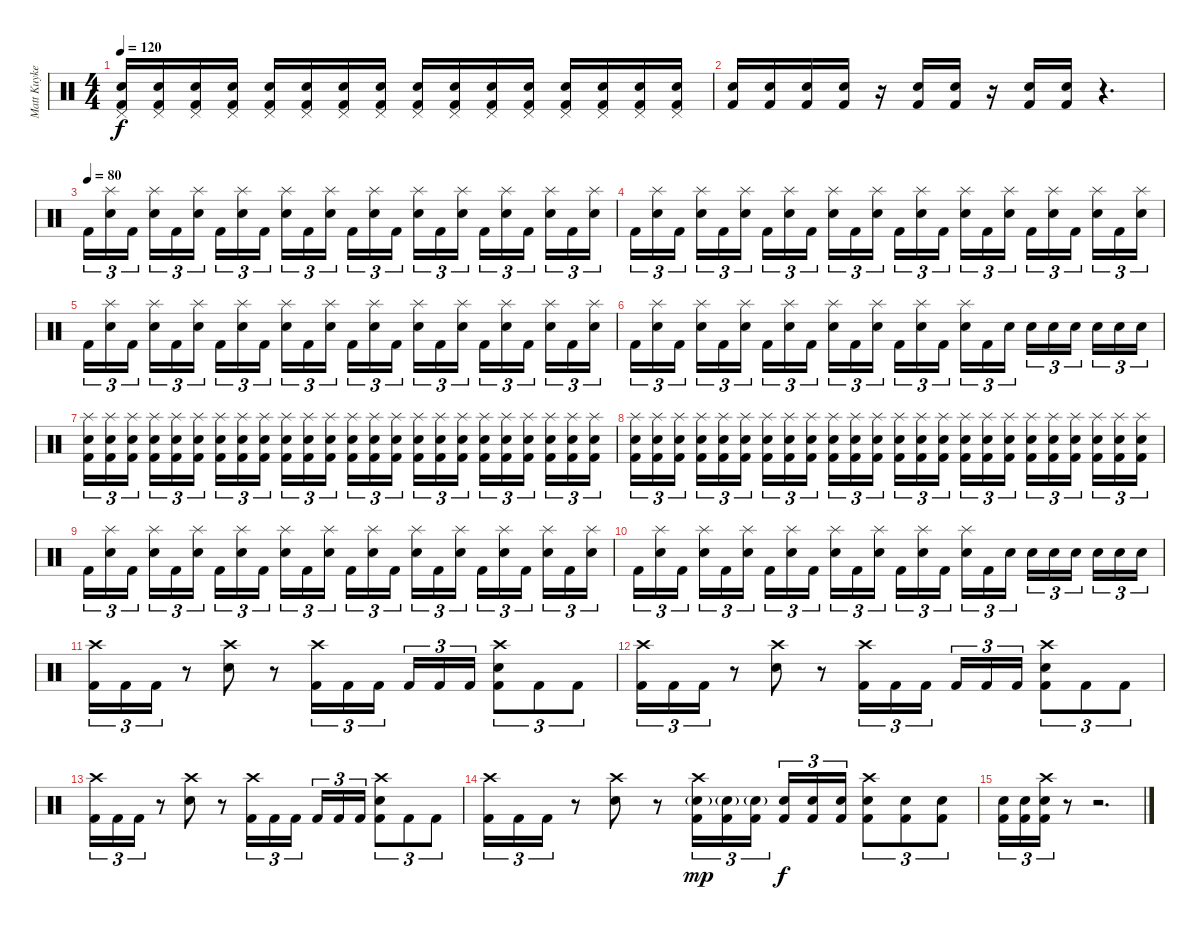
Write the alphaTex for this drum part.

\track ("Matt Kuykendall (Drums)" "Matt Kuyke") {instrument percussion}
\staff {score}
\articulation defaults
\ts (4 4)
\tempo 120
\clef neutral
\ks c
("Pedal Hi-Hat (hit)" "Snare (hit) 2" "Kick (hit) 2").16{dy f} ("Pedal Hi-Hat (hit)" "Snare (hit) 2" "Kick (hit) 2").16 ("Pedal Hi-Hat (hit)" "Snare (hit) 2" "Kick (hit) 2").16 ("Pedal Hi-Hat (hit)" "Snare (hit) 2" "Kick (hit) 2").16 ("Pedal Hi-Hat (hit)" "Snare (hit) 2" "Kick (hit) 2").16 ("Pedal Hi-Hat (hit)" "Snare (hit) 2" "Kick (hit) 2").16 ("Pedal Hi-Hat (hit)" "Snare (hit) 2" "Kick (hit) 2").16 ("Pedal Hi-Hat (hit)" "Snare (hit) 2" "Kick (hit) 2").16 ("Pedal Hi-Hat (hit)" "Snare (hit) 2" "Kick (hit) 2").16 ("Pedal Hi-Hat (hit)" "Snare (hit) 2" "Kick (hit) 2").16 ("Pedal Hi-Hat (hit)" "Snare (hit) 2" "Kick (hit) 2").16 ("Pedal Hi-Hat (hit)" "Snare (hit) 2" "Kick (hit) 2").16 ("Pedal Hi-Hat (hit)" "Snare (hit) 2" "Kick (hit) 2").16 ("Pedal Hi-Hat (hit)" "Snare (hit) 2" "Kick (hit) 2").16 ("Pedal Hi-Hat (hit)" "Snare (hit) 2" "Kick (hit) 2").16 ("Pedal Hi-Hat (hit)" "Snare (hit) 2" "Kick (hit) 2").16 |
("Snare (hit) 2" "Kick (hit) 2").16 ("Snare (hit) 2" "Kick (hit) 2").16 ("Snare (hit) 2" "Kick (hit) 2").16 ("Snare (hit) 2" "Kick (hit) 2").16 r.16 ("Snare (hit) 2" "Kick (hit) 2").16 ("Snare (hit) 2" "Kick (hit) 2").16 r.16 ("Snare (hit) 2" "Kick (hit) 2").16 ("Snare (hit) 2" "Kick (hit) 2").16 r.4{d} |
\tempo (80)
"Kick (hit) 2".16{tu (3 2)} ("Splash (hit)" "Snare (hit) 2").16{tu (3 2)} "Kick (hit) 2".16{tu (3 2) beam splitsecondary} ("Splash (hit)" "Snare (hit) 2").16{tu (3 2)} "Kick (hit) 2".16{tu (3 2)} ("Splash (hit)" "Snare (hit) 2").16{tu (3 2)} "Kick (hit) 2".16{tu (3 2)} ("Splash (hit)" "Snare (hit) 2").16{tu (3 2)} "Kick (hit) 2".16{tu (3 2) beam splitsecondary} ("Splash (hit)" "Snare (hit) 2").16{tu (3 2)} "Kick (hit) 2".16{tu (3 2)} ("Splash (hit)" "Snare (hit) 2").16{tu (3 2)} "Kick (hit) 2".16{tu (3 2)} ("Splash (hit)" "Snare (hit) 2").16{tu (3 2)} "Kick (hit) 2".16{tu (3 2) beam splitsecondary} ("Splash (hit)" "Snare (hit) 2").16{tu (3 2)} "Kick (hit) 2".16{tu (3 2)} ("Splash (hit)" "Snare (hit) 2").16{tu (3 2)} "Kick (hit) 2".16{tu (3 2)} ("Splash (hit)" "Snare (hit) 2").16{tu (3 2)} "Kick (hit) 2".16{tu (3 2) beam splitsecondary} ("Splash (hit)" "Snare (hit) 2").16{tu (3 2)} "Kick (hit) 2".16{tu (3 2)} ("Splash (hit)" "Snare (hit) 2").16{tu (3 2)} |
"Kick (hit) 2".16{tu (3 2)} ("Splash (hit)" "Snare (hit) 2").16{tu (3 2)} "Kick (hit) 2".16{tu (3 2) beam splitsecondary} ("Splash (hit)" "Snare (hit) 2").16{tu (3 2)} "Kick (hit) 2".16{tu (3 2)} ("Splash (hit)" "Snare (hit) 2").16{tu (3 2)} "Kick (hit) 2".16{tu (3 2)} ("Splash (hit)" "Snare (hit) 2").16{tu (3 2)} "Kick (hit) 2".16{tu (3 2) beam splitsecondary} ("Splash (hit)" "Snare (hit) 2").16{tu (3 2)} "Kick (hit) 2".16{tu (3 2)} ("Splash (hit)" "Snare (hit) 2").16{tu (3 2)} "Kick (hit) 2".16{tu (3 2)} ("Splash (hit)" "Snare (hit) 2").16{tu (3 2)} "Kick (hit) 2".16{tu (3 2) beam splitsecondary} ("Splash (hit)" "Snare (hit) 2").16{tu (3 2)} "Kick (hit) 2".16{tu (3 2)} ("Splash (hit)" "Snare (hit) 2").16{tu (3 2)} "Kick (hit) 2".16{tu (3 2)} ("Splash (hit)" "Snare (hit) 2").16{tu (3 2)} "Kick (hit) 2".16{tu (3 2) beam splitsecondary} ("Splash (hit)" "Snare (hit) 2").16{tu (3 2)} "Kick (hit) 2".16{tu (3 2)} ("Splash (hit)" "Snare (hit) 2").16{tu (3 2)} |
"Kick (hit) 2".16{tu (3 2)} ("Splash (hit)" "Snare (hit) 2").16{tu (3 2)} "Kick (hit) 2".16{tu (3 2) beam splitsecondary} ("Splash (hit)" "Snare (hit) 2").16{tu (3 2)} "Kick (hit) 2".16{tu (3 2)} ("Splash (hit)" "Snare (hit) 2").16{tu (3 2)} "Kick (hit) 2".16{tu (3 2)} ("Splash (hit)" "Snare (hit) 2").16{tu (3 2)} "Kick (hit) 2".16{tu (3 2) beam splitsecondary} ("Splash (hit)" "Snare (hit) 2").16{tu (3 2)} "Kick (hit) 2".16{tu (3 2)} ("Splash (hit)" "Snare (hit) 2").16{tu (3 2)} "Kick (hit) 2".16{tu (3 2)} ("Splash (hit)" "Snare (hit) 2").16{tu (3 2)} "Kick (hit) 2".16{tu (3 2) beam splitsecondary} ("Splash (hit)" "Snare (hit) 2").16{tu (3 2)} "Kick (hit) 2".16{tu (3 2)} ("Splash (hit)" "Snare (hit) 2").16{tu (3 2)} "Kick (hit) 2".16{tu (3 2)} ("Splash (hit)" "Snare (hit) 2").16{tu (3 2)} "Kick (hit) 2".16{tu (3 2) beam splitsecondary} ("Splash (hit)" "Snare (hit) 2").16{tu (3 2)} "Kick (hit) 2".16{tu (3 2)} ("Splash (hit)" "Snare (hit) 2").16{tu (3 2)} |
"Kick (hit) 2".16{tu (3 2)} ("Splash (hit)" "Snare (hit) 2").16{tu (3 2)} "Kick (hit) 2".16{tu (3 2) beam splitsecondary} ("Splash (hit)" "Snare (hit) 2").16{tu (3 2)} "Kick (hit) 2".16{tu (3 2)} ("Splash (hit)" "Snare (hit) 2").16{tu (3 2)} "Kick (hit) 2".16{tu (3 2)} ("Splash (hit)" "Snare (hit) 2").16{tu (3 2)} "Kick (hit) 2".16{tu (3 2) beam splitsecondary} ("Splash (hit)" "Snare (hit) 2").16{tu (3 2)} "Kick (hit) 2".16{tu (3 2)} ("Splash (hit)" "Snare (hit) 2").16{tu (3 2)} "Kick (hit) 2".16{tu (3 2)} ("Splash (hit)" "Snare (hit) 2").16{tu (3 2)} "Kick (hit) 2".16{tu (3 2) beam splitsecondary} ("Splash (hit)" "Snare (hit) 2").16{tu (3 2)} "Kick (hit) 2".16{tu (3 2)} "Snare (hit) 2".16{tu (3 2)} "Snare (hit) 2".16{tu (3 2)} "Snare (hit) 2".16{tu (3 2)} "Snare (hit) 2".16{tu (3 2) beam splitsecondary} "Snare (hit) 2".16{tu (3 2)} "Snare (hit) 2".16{tu (3 2)} "Snare (hit) 2".16{tu (3 2)} |
("Splash (hit)" "Snare (hit) 2" "Kick (hit) 2").16{tu (3 2)} ("Splash (hit)" "Snare (hit) 2" "Kick (hit) 2").16{tu (3 2)} ("Splash (hit)" "Snare (hit) 2" "Kick (hit) 2").16{tu (3 2) beam splitsecondary} ("Splash (hit)" "Snare (hit) 2" "Kick (hit) 2").16{tu (3 2)} ("Splash (hit)" "Snare (hit) 2" "Kick (hit) 2").16{tu (3 2)} ("Splash (hit)" "Snare (hit) 2" "Kick (hit) 2").16{tu (3 2)} ("Splash (hit)" "Snare (hit) 2" "Kick (hit) 2").16{tu (3 2)} ("Splash (hit)" "Snare (hit) 2" "Kick (hit) 2").16{tu (3 2)} ("Splash (hit)" "Snare (hit) 2" "Kick (hit) 2").16{tu (3 2) beam splitsecondary} ("Splash (hit)" "Snare (hit) 2" "Kick (hit) 2").16{tu (3 2)} ("Splash (hit)" "Snare (hit) 2" "Kick (hit) 2").16{tu (3 2)} ("Splash (hit)" "Snare (hit) 2" "Kick (hit) 2").16{tu (3 2)} ("Splash (hit)" "Snare (hit) 2" "Kick (hit) 2").16{tu (3 2)} ("Splash (hit)" "Snare (hit) 2" "Kick (hit) 2").16{tu (3 2)} ("Splash (hit)" "Snare (hit) 2" "Kick (hit) 2").16{tu (3 2) beam splitsecondary} ("Splash (hit)" "Snare (hit) 2" "Kick (hit) 2").16{tu (3 2)} ("Splash (hit)" "Snare (hit) 2" "Kick (hit) 2").16{tu (3 2)} ("Splash (hit)" "Snare (hit) 2" "Kick (hit) 2").16{tu (3 2)} ("Splash (hit)" "Snare (hit) 2" "Kick (hit) 2").16{tu (3 2)} ("Splash (hit)" "Snare (hit) 2" "Kick (hit) 2").16{tu (3 2)} ("Splash (hit)" "Snare (hit) 2" "Kick (hit) 2").16{tu (3 2) beam splitsecondary} ("Splash (hit)" "Snare (hit) 2" "Kick (hit) 2").16{tu (3 2)} ("Splash (hit)" "Snare (hit) 2" "Kick (hit) 2").16{tu (3 2)} ("Splash (hit)" "Snare (hit) 2" "Kick (hit) 2").16{tu (3 2)} |
("Splash (hit)" "Snare (hit) 2" "Kick (hit) 2").16{tu (3 2)} ("Splash (hit)" "Snare (hit) 2" "Kick (hit) 2").16{tu (3 2)} ("Splash (hit)" "Snare (hit) 2" "Kick (hit) 2").16{tu (3 2) beam splitsecondary} ("Splash (hit)" "Snare (hit) 2" "Kick (hit) 2").16{tu (3 2)} ("Splash (hit)" "Snare (hit) 2" "Kick (hit) 2").16{tu (3 2)} ("Splash (hit)" "Snare (hit) 2" "Kick (hit) 2").16{tu (3 2)} ("Splash (hit)" "Snare (hit) 2" "Kick (hit) 2").16{tu (3 2)} ("Splash (hit)" "Snare (hit) 2" "Kick (hit) 2").16{tu (3 2)} ("Splash (hit)" "Snare (hit) 2" "Kick (hit) 2").16{tu (3 2) beam splitsecondary} ("Splash (hit)" "Snare (hit) 2" "Kick (hit) 2").16{tu (3 2)} ("Splash (hit)" "Snare (hit) 2" "Kick (hit) 2").16{tu (3 2)} ("Splash (hit)" "Snare (hit) 2" "Kick (hit) 2").16{tu (3 2)} ("Splash (hit)" "Snare (hit) 2" "Kick (hit) 2").16{tu (3 2)} ("Splash (hit)" "Snare (hit) 2" "Kick (hit) 2").16{tu (3 2)} ("Splash (hit)" "Snare (hit) 2" "Kick (hit) 2").16{tu (3 2) beam splitsecondary} ("Splash (hit)" "Snare (hit) 2" "Kick (hit) 2").16{tu (3 2)} ("Splash (hit)" "Snare (hit) 2" "Kick (hit) 2").16{tu (3 2)} ("Splash (hit)" "Snare (hit) 2" "Kick (hit) 2").16{tu (3 2)} ("Splash (hit)" "Snare (hit) 2" "Kick (hit) 2").16{tu (3 2)} ("Splash (hit)" "Snare (hit) 2" "Kick (hit) 2").16{tu (3 2)} ("Splash (hit)" "Snare (hit) 2" "Kick (hit) 2").16{tu (3 2) beam splitsecondary} ("Splash (hit)" "Snare (hit) 2" "Kick (hit) 2").16{tu (3 2)} ("Splash (hit)" "Snare (hit) 2" "Kick (hit) 2").16{tu (3 2)} ("Splash (hit)" "Snare (hit) 2" "Kick (hit) 2").16{tu (3 2)} |
"Kick (hit) 2".16{tu (3 2)} ("Splash (hit)" "Snare (hit) 2").16{tu (3 2)} "Kick (hit) 2".16{tu (3 2) beam splitsecondary} ("Splash (hit)" "Snare (hit) 2").16{tu (3 2)} "Kick (hit) 2".16{tu (3 2)} ("Splash (hit)" "Snare (hit) 2").16{tu (3 2)} "Kick (hit) 2".16{tu (3 2)} ("Splash (hit)" "Snare (hit) 2").16{tu (3 2)} "Kick (hit) 2".16{tu (3 2) beam splitsecondary} ("Splash (hit)" "Snare (hit) 2").16{tu (3 2)} "Kick (hit) 2".16{tu (3 2)} ("Splash (hit)" "Snare (hit) 2").16{tu (3 2)} "Kick (hit) 2".16{tu (3 2)} ("Splash (hit)" "Snare (hit) 2").16{tu (3 2)} "Kick (hit) 2".16{tu (3 2) beam splitsecondary} ("Splash (hit)" "Snare (hit) 2").16{tu (3 2)} "Kick (hit) 2".16{tu (3 2)} ("Splash (hit)" "Snare (hit) 2").16{tu (3 2)} "Kick (hit) 2".16{tu (3 2)} ("Splash (hit)" "Snare (hit) 2").16{tu (3 2)} "Kick (hit) 2".16{tu (3 2) beam splitsecondary} ("Splash (hit)" "Snare (hit) 2").16{tu (3 2)} "Kick (hit) 2".16{tu (3 2)} ("Splash (hit)" "Snare (hit) 2").16{tu (3 2)} |
"Kick (hit) 2".16{tu (3 2)} ("Splash (hit)" "Snare (hit) 2").16{tu (3 2)} "Kick (hit) 2".16{tu (3 2) beam splitsecondary} ("Splash (hit)" "Snare (hit) 2").16{tu (3 2)} "Kick (hit) 2".16{tu (3 2)} ("Splash (hit)" "Snare (hit) 2").16{tu (3 2)} "Kick (hit) 2".16{tu (3 2)} ("Splash (hit)" "Snare (hit) 2").16{tu (3 2)} "Kick (hit) 2".16{tu (3 2) beam splitsecondary} ("Splash (hit)" "Snare (hit) 2").16{tu (3 2)} "Kick (hit) 2".16{tu (3 2)} ("Splash (hit)" "Snare (hit) 2").16{tu (3 2)} "Kick (hit) 2".16{tu (3 2)} ("Splash (hit)" "Snare (hit) 2").16{tu (3 2)} "Kick (hit) 2".16{tu (3 2) beam splitsecondary} ("Splash (hit)" "Snare (hit) 2").16{tu (3 2)} "Kick (hit) 2".16{tu (3 2)} "Snare (hit) 2".16{tu (3 2)} "Snare (hit) 2".16{tu (3 2)} "Snare (hit) 2".16{tu (3 2)} "Snare (hit) 2".16{tu (3 2) beam splitsecondary} "Snare (hit) 2".16{tu (3 2)} "Snare (hit) 2".16{tu (3 2)} "Snare (hit) 2".16{tu (3 2)} |
("Crash high (hit)" "Kick (hit) 2").16{tu (3 2)} "Kick (hit) 2".16{tu (3 2)} "Kick (hit) 2".16{tu (3 2)} r.8 ("Crash high (hit)" "Snare (hit) 2").8 r.8 ("Crash high (hit)" "Kick (hit) 2").16{tu (3 2)} "Kick (hit) 2".16{tu (3 2)} "Kick (hit) 2".16{tu (3 2) beam splitsecondary} "Kick (hit) 2".16{tu (3 2)} "Kick (hit) 2".16{tu (3 2)} "Kick (hit) 2".16{tu (3 2)} ("Crash high (hit)" "Snare (hit) 2" "Kick (hit) 2").8{tu (3 2)} "Kick (hit) 2".8{tu (3 2)} "Kick (hit) 2".8{tu (3 2)} |
("Crash high (hit)" "Kick (hit) 2").16{tu (3 2)} "Kick (hit) 2".16{tu (3 2)} "Kick (hit) 2".16{tu (3 2)} r.8 ("Crash high (hit)" "Snare (hit) 2").8 r.8 ("Crash high (hit)" "Kick (hit) 2").16{tu (3 2)} "Kick (hit) 2".16{tu (3 2)} "Kick (hit) 2".16{tu (3 2) beam splitsecondary} "Kick (hit) 2".16{tu (3 2)} "Kick (hit) 2".16{tu (3 2)} "Kick (hit) 2".16{tu (3 2)} ("Crash high (hit)" "Snare (hit) 2" "Kick (hit) 2").8{tu (3 2)} "Kick (hit) 2".8{tu (3 2)} "Kick (hit) 2".8{tu (3 2)} |
("Crash high (hit)" "Kick (hit) 2").16{tu (3 2)} "Kick (hit) 2".16{tu (3 2)} "Kick (hit) 2".16{tu (3 2)} r.8 ("Crash high (hit)" "Snare (hit) 2").8 r.8 ("Crash high (hit)" "Kick (hit) 2").16{tu (3 2)} "Kick (hit) 2".16{tu (3 2)} "Kick (hit) 2".16{tu (3 2) beam splitsecondary} "Kick (hit) 2".16{tu (3 2)} "Kick (hit) 2".16{tu (3 2)} "Kick (hit) 2".16{tu (3 2)} ("Crash high (hit)" "Snare (hit) 2" "Kick (hit) 2").8{tu (3 2)} "Kick (hit) 2".8{tu (3 2)} "Kick (hit) 2".8{tu (3 2)} |
("Crash high (hit)" "Kick (hit) 2").16{tu (3 2)} "Kick (hit) 2".16{tu (3 2)} "Kick (hit) 2".16{tu (3 2)} r.8 ("Crash high (hit)" "Snare (hit) 2").8 r.8 ("Crash high (hit)" "Snare (hit) 2"{g} "Kick (hit) 2").16{tu (3 2) dy mp} ("Snare (hit) 2"{g} "Kick (hit) 2").16{tu (3 2)} ("Snare (hit) 2"{g} "Kick (hit) 2").16{tu (3 2) beam splitsecondary} ("Snare (hit) 2" "Kick (hit) 2").16{tu (3 2) dy f} ("Snare (hit) 2" "Kick (hit) 2").16{tu (3 2)} ("Snare (hit) 2" "Kick (hit) 2").16{tu (3 2)} ("Crash high (hit)" "Snare (hit) 2" "Kick (hit) 2").8{tu (3 2)} ("Snare (hit) 2" "Kick (hit) 2").8{tu (3 2)} ("Snare (hit) 2" "Kick (hit) 2").8{tu (3 2)} |
("Snare (hit) 2" "Kick (hit) 2").16{tu (3 2)} ("Snare (hit) 2" "Kick (hit) 2").16{tu (3 2)} ("Crash high (hit)" "Snare (hit) 2" "Kick (hit) 2").16{tu (3 2)} r.8 r.2{d}
